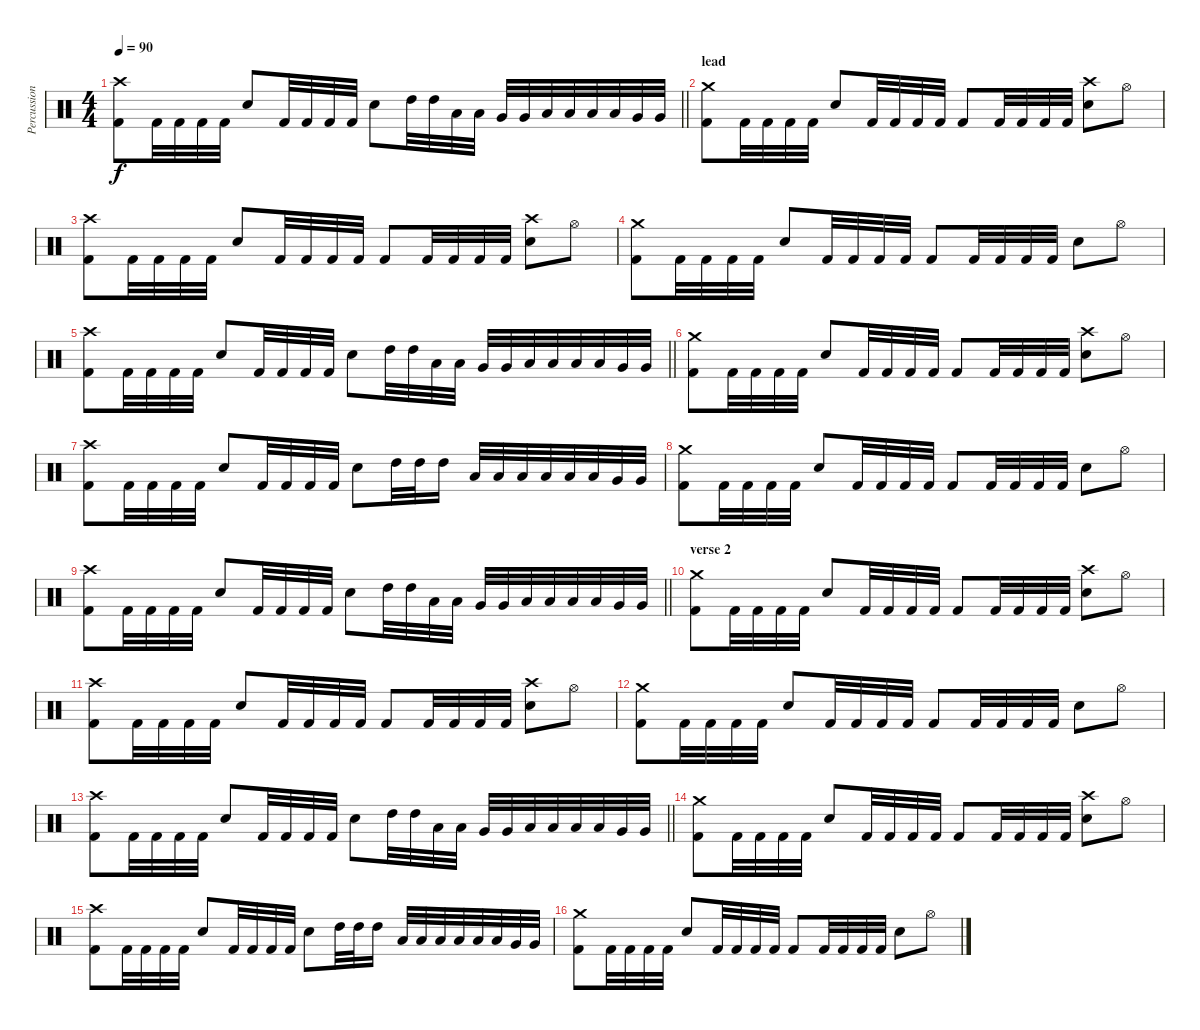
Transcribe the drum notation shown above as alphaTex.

\track ("Percussion" "Percussion") {instrument percussion}
\staff {score}
\articulation defaults
\ts (4 4)
\tempo 90
\clef neutral
\barLineRight lightlight
\ks c
("Crash high (hit)" "Kick (hit) 2").8{dy f} "Kick (hit) 2".32 "Kick (hit) 2".32 "Kick (hit) 2".32 "Kick (hit) 2".32 "Electric Snare (hit)".8 "Kick (hit) 2".32 "Kick (hit) 2".32 "Kick (hit) 2".32 "Kick (hit) 2".32 "Electric Snare (hit)".8 "High Tom (hit)".32 "High Tom (hit)".32 "Low Tom (hit)".32 "Low Tom (hit)".32 "Very Low Tom (hit)".32 "Very Low Tom (hit)".32 "Low Floor Tom (hit)".32 "Low Floor Tom (hit)".32 "Low Floor Tom (hit)".32 "Low Floor Tom (hit)".32 "Very Low Tom (hit)".32 "Very Low Tom (hit)".32 |
\section ("" "lead")
("Crash medium (hit)" "Kick (hit) 2").8 "Kick (hit) 2".32 "Kick (hit) 2".32 "Kick (hit) 2".32 "Kick (hit) 2".32 "Electric Snare (hit)".8 "Kick (hit) 2".32 "Kick (hit) 2".32 "Kick (hit) 2".32 "Kick (hit) 2".32 "Kick (hit) 2".8 "Kick (hit) 2".32 "Kick (hit) 2".32 "Kick (hit) 2".32 "Kick (hit) 2".32 ("Crash high (hit)" "Electric Snare (hit)").8 "Hi-Hat (open)".8 |
("Crash high (hit)" "Kick (hit) 2").8 "Kick (hit) 2".32 "Kick (hit) 2".32 "Kick (hit) 2".32 "Kick (hit) 2".32 "Electric Snare (hit)".8 "Kick (hit) 2".32 "Kick (hit) 2".32 "Kick (hit) 2".32 "Kick (hit) 2".32 "Kick (hit) 2".8 "Kick (hit) 2".32 "Kick (hit) 2".32 "Kick (hit) 2".32 "Kick (hit) 2".32 ("Crash high (hit)" "Electric Snare (hit)").8 "Hi-Hat (open)".8 |
("Crash medium (hit)" "Kick (hit) 2").8 "Kick (hit) 2".32 "Kick (hit) 2".32 "Kick (hit) 2".32 "Kick (hit) 2".32 "Electric Snare (hit)".8 "Kick (hit) 2".32 "Kick (hit) 2".32 "Kick (hit) 2".32 "Kick (hit) 2".32 "Kick (hit) 2".8 "Kick (hit) 2".32 "Kick (hit) 2".32 "Kick (hit) 2".32 "Kick (hit) 2".32 "Electric Snare (hit)".8 "Hi-Hat (open)".8 |
\barLineRight lightlight
("Crash high (hit)" "Kick (hit) 2").8 "Kick (hit) 2".32 "Kick (hit) 2".32 "Kick (hit) 2".32 "Kick (hit) 2".32 "Electric Snare (hit)".8 "Kick (hit) 2".32 "Kick (hit) 2".32 "Kick (hit) 2".32 "Kick (hit) 2".32 "Electric Snare (hit)".8 "High Tom (hit)".32 "High Tom (hit)".32 "Low Tom (hit)".32 "Low Tom (hit)".32 "Very Low Tom (hit)".32 "Very Low Tom (hit)".32 "Low Floor Tom (hit)".32 "Low Floor Tom (hit)".32 "Low Floor Tom (hit)".32 "Low Floor Tom (hit)".32 "Very Low Tom (hit)".32 "Very Low Tom (hit)".32 |
("Crash medium (hit)" "Kick (hit) 2").8 "Kick (hit) 2".32 "Kick (hit) 2".32 "Kick (hit) 2".32 "Kick (hit) 2".32 "Electric Snare (hit)".8 "Kick (hit) 2".32 "Kick (hit) 2".32 "Kick (hit) 2".32 "Kick (hit) 2".32 "Kick (hit) 2".8 "Kick (hit) 2".32 "Kick (hit) 2".32 "Kick (hit) 2".32 "Kick (hit) 2".32 ("Crash high (hit)" "Electric Snare (hit)").8 "Hi-Hat (open)".8 |
("Crash high (hit)" "Kick (hit) 2").8 "Kick (hit) 2".32 "Kick (hit) 2".32 "Kick (hit) 2".32 "Kick (hit) 2".32 "Electric Snare (hit)".8 "Kick (hit) 2".32 "Kick (hit) 2".32 "Kick (hit) 2".32 "Kick (hit) 2".32 "Electric Snare (hit)".8 "High Tom (hit)".32 "High Tom (hit)".32 "High Tom (hit)".16 "Low Tom (hit)".32 "Low Tom (hit)".32 "Low Tom (hit)".32 "Low Floor Tom (hit)".32 "Low Floor Tom (hit)".32 "Low Floor Tom (hit)".32 "Very Low Tom (hit)".32 "Very Low Tom (hit)".32 |
("Crash medium (hit)" "Kick (hit) 2").8 "Kick (hit) 2".32 "Kick (hit) 2".32 "Kick (hit) 2".32 "Kick (hit) 2".32 "Electric Snare (hit)".8 "Kick (hit) 2".32 "Kick (hit) 2".32 "Kick (hit) 2".32 "Kick (hit) 2".32 "Kick (hit) 2".8 "Kick (hit) 2".32 "Kick (hit) 2".32 "Kick (hit) 2".32 "Kick (hit) 2".32 "Electric Snare (hit)".8 "Hi-Hat (open)".8 |
\barLineRight lightlight
("Crash high (hit)" "Kick (hit) 2").8 "Kick (hit) 2".32 "Kick (hit) 2".32 "Kick (hit) 2".32 "Kick (hit) 2".32 "Electric Snare (hit)".8 "Kick (hit) 2".32 "Kick (hit) 2".32 "Kick (hit) 2".32 "Kick (hit) 2".32 "Electric Snare (hit)".8 "High Tom (hit)".32 "High Tom (hit)".32 "Low Tom (hit)".32 "Low Tom (hit)".32 "Very Low Tom (hit)".32 "Very Low Tom (hit)".32 "Low Floor Tom (hit)".32 "Low Floor Tom (hit)".32 "Low Floor Tom (hit)".32 "Low Floor Tom (hit)".32 "Very Low Tom (hit)".32 "Very Low Tom (hit)".32 |
\section ("" "verse 2")
("Crash medium (hit)" "Kick (hit) 2").8 "Kick (hit) 2".32 "Kick (hit) 2".32 "Kick (hit) 2".32 "Kick (hit) 2".32 "Electric Snare (hit)".8 "Kick (hit) 2".32 "Kick (hit) 2".32 "Kick (hit) 2".32 "Kick (hit) 2".32 "Kick (hit) 2".8 "Kick (hit) 2".32 "Kick (hit) 2".32 "Kick (hit) 2".32 "Kick (hit) 2".32 ("Crash high (hit)" "Electric Snare (hit)").8 "Hi-Hat (open)".8 |
("Crash high (hit)" "Kick (hit) 2").8 "Kick (hit) 2".32 "Kick (hit) 2".32 "Kick (hit) 2".32 "Kick (hit) 2".32 "Electric Snare (hit)".8 "Kick (hit) 2".32 "Kick (hit) 2".32 "Kick (hit) 2".32 "Kick (hit) 2".32 "Kick (hit) 2".8 "Kick (hit) 2".32 "Kick (hit) 2".32 "Kick (hit) 2".32 "Kick (hit) 2".32 ("Crash high (hit)" "Electric Snare (hit)").8 "Hi-Hat (open)".8 |
("Crash medium (hit)" "Kick (hit) 2").8 "Kick (hit) 2".32 "Kick (hit) 2".32 "Kick (hit) 2".32 "Kick (hit) 2".32 "Electric Snare (hit)".8 "Kick (hit) 2".32 "Kick (hit) 2".32 "Kick (hit) 2".32 "Kick (hit) 2".32 "Kick (hit) 2".8 "Kick (hit) 2".32 "Kick (hit) 2".32 "Kick (hit) 2".32 "Kick (hit) 2".32 "Electric Snare (hit)".8 "Hi-Hat (open)".8 |
\barLineRight lightlight
("Crash high (hit)" "Kick (hit) 2").8 "Kick (hit) 2".32 "Kick (hit) 2".32 "Kick (hit) 2".32 "Kick (hit) 2".32 "Electric Snare (hit)".8 "Kick (hit) 2".32 "Kick (hit) 2".32 "Kick (hit) 2".32 "Kick (hit) 2".32 "Electric Snare (hit)".8 "High Tom (hit)".32 "High Tom (hit)".32 "Low Tom (hit)".32 "Low Tom (hit)".32 "Very Low Tom (hit)".32 "Very Low Tom (hit)".32 "Low Floor Tom (hit)".32 "Low Floor Tom (hit)".32 "Low Floor Tom (hit)".32 "Low Floor Tom (hit)".32 "Very Low Tom (hit)".32 "Very Low Tom (hit)".32 |
("Crash medium (hit)" "Kick (hit) 2").8 "Kick (hit) 2".32 "Kick (hit) 2".32 "Kick (hit) 2".32 "Kick (hit) 2".32 "Electric Snare (hit)".8 "Kick (hit) 2".32 "Kick (hit) 2".32 "Kick (hit) 2".32 "Kick (hit) 2".32 "Kick (hit) 2".8 "Kick (hit) 2".32 "Kick (hit) 2".32 "Kick (hit) 2".32 "Kick (hit) 2".32 ("Crash high (hit)" "Electric Snare (hit)").8 "Hi-Hat (open)".8 |
("Crash high (hit)" "Kick (hit) 2").8 "Kick (hit) 2".32 "Kick (hit) 2".32 "Kick (hit) 2".32 "Kick (hit) 2".32 "Electric Snare (hit)".8 "Kick (hit) 2".32 "Kick (hit) 2".32 "Kick (hit) 2".32 "Kick (hit) 2".32 "Electric Snare (hit)".8 "High Tom (hit)".32 "High Tom (hit)".32 "High Tom (hit)".16 "Low Tom (hit)".32 "Low Tom (hit)".32 "Low Tom (hit)".32 "Low Floor Tom (hit)".32 "Low Floor Tom (hit)".32 "Low Floor Tom (hit)".32 "Very Low Tom (hit)".32 "Very Low Tom (hit)".32 |
("Crash medium (hit)" "Kick (hit) 2").8 "Kick (hit) 2".32 "Kick (hit) 2".32 "Kick (hit) 2".32 "Kick (hit) 2".32 "Electric Snare (hit)".8 "Kick (hit) 2".32 "Kick (hit) 2".32 "Kick (hit) 2".32 "Kick (hit) 2".32 "Kick (hit) 2".8 "Kick (hit) 2".32 "Kick (hit) 2".32 "Kick (hit) 2".32 "Kick (hit) 2".32 "Electric Snare (hit)".8 "Hi-Hat (open)".8
